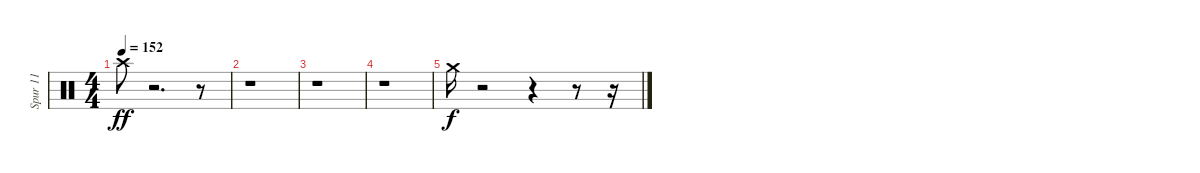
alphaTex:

\track ("Spur 11" "Spur 11") {instrument percussion}
\staff {score}
\articulation defaults
\ts (4 4)
\tempo 152
\clef neutral
\ks c "Crash high (hit)".8{dy ff}
r.2{d} r.8 |
r.1 |
r.1 |
r.1 |
"Crash medium (hit)".16{dy f} r.2 r.4 r.8 r.16
